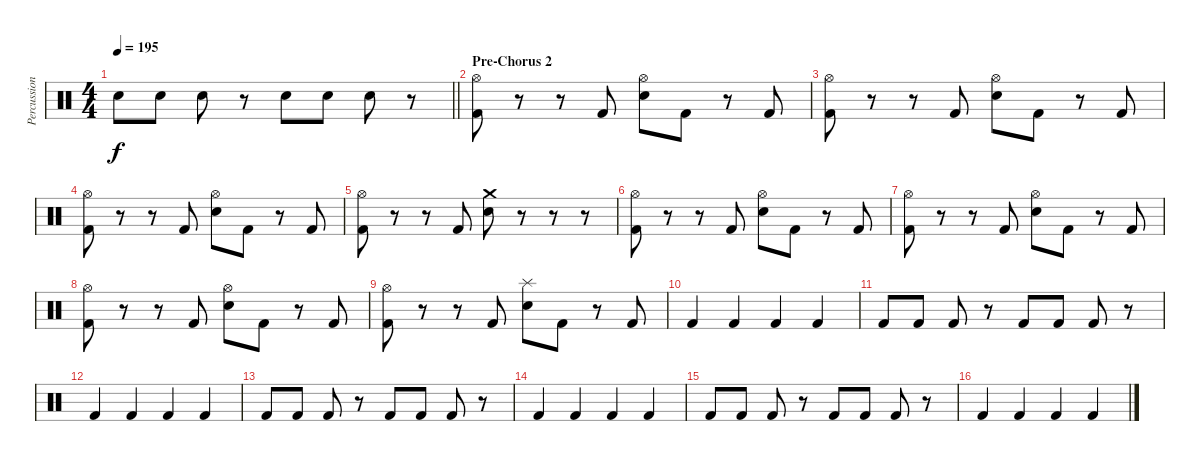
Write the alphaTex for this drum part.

\track ("Percussion" "Percussion") {instrument percussion}
\staff {score}
\articulation defaults
\ts (4 4)
\tempo 195
\clef neutral
\barLineRight lightlight
\ks c "Snare (hit) 2".8{dy f} "Snare (hit) 2".8 "Snare (hit) 2".8
r.8 "Snare (hit) 2".8 "Snare (hit) 2".8 "Snare (hit) 2".8 r.8 |
\section ("" "Pre-Chorus 2")
("Hi-Hat (open)" "Kick (hit) 2").8 r.8 r.8 "Kick (hit) 2".8 ("Hi-Hat (open)" "Snare (hit) 2").8 "Kick (hit) 2".8 r.8 "Kick (hit) 2".8 |
("Hi-Hat (open)" "Kick (hit) 2").8 r.8 r.8 "Kick (hit) 2".8 ("Hi-Hat (open)" "Snare (hit) 2").8 "Kick (hit) 2".8 r.8 "Kick (hit) 2".8 |
("Hi-Hat (open)" "Kick (hit) 2").8 r.8 r.8 "Kick (hit) 2".8 ("Hi-Hat (open)" "Snare (hit) 2").8 "Kick (hit) 2".8 r.8 "Kick (hit) 2".8 |
("Hi-Hat (open)" "Kick (hit) 2").8 r.8 r.8 "Kick (hit) 2".8 ("Crash medium (hit)" "Snare (hit) 2").8 r.8 r.8 r.8 |
("Hi-Hat (open)" "Kick (hit) 2").8 r.8 r.8 "Kick (hit) 2".8 ("Hi-Hat (open)" "Snare (hit) 2").8 "Kick (hit) 2".8 r.8 "Kick (hit) 2".8 |
("Hi-Hat (open)" "Kick (hit) 2").8 r.8 r.8 "Kick (hit) 2".8 ("Hi-Hat (open)" "Snare (hit) 2").8 "Kick (hit) 2".8 r.8 "Kick (hit) 2".8 |
("Hi-Hat (open)" "Kick (hit) 2").8 r.8 r.8 "Kick (hit) 2".8 ("Hi-Hat (open)" "Snare (hit) 2").8 "Kick (hit) 2".8 r.8 "Kick (hit) 2".8 |
("Hi-Hat (open)" "Kick (hit) 2").8 r.8 r.8 "Kick (hit) 2".8 ("Splash (hit)" "Snare (hit) 2").8 "Kick (hit) 2".8 r.8 "Kick (hit) 2".8 |
"Kick (hit) 2".4 "Kick (hit) 2".4 "Kick (hit) 2".4 "Kick (hit) 2".4 |
"Kick (hit) 2".8 "Kick (hit) 2".8 "Kick (hit) 2".8 r.8 "Kick (hit) 2".8 "Kick (hit) 2".8 "Kick (hit) 2".8 r.8 |
"Kick (hit) 2".4 "Kick (hit) 2".4 "Kick (hit) 2".4 "Kick (hit) 2".4 |
"Kick (hit) 2".8 "Kick (hit) 2".8 "Kick (hit) 2".8 r.8 "Kick (hit) 2".8 "Kick (hit) 2".8 "Kick (hit) 2".8 r.8 |
"Kick (hit) 2".4 "Kick (hit) 2".4 "Kick (hit) 2".4 "Kick (hit) 2".4 |
"Kick (hit) 2".8 "Kick (hit) 2".8 "Kick (hit) 2".8 r.8 "Kick (hit) 2".8 "Kick (hit) 2".8 "Kick (hit) 2".8 r.8 |
"Kick (hit) 2".4 "Kick (hit) 2".4 "Kick (hit) 2".4 "Kick (hit) 2".4
